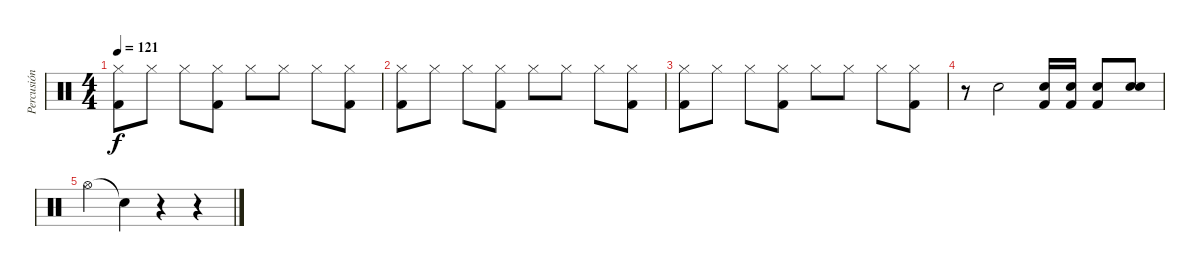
\track ("Percusión" "Percusión") {instrument percussion}
\staff {score}
\articulation defaults
\ts (4 4)
\tempo 121
\clef neutral
\ks c
("Kick (hit) 2" "Hi-Hat (closed)").8{dy f} "Hi-Hat (closed)".8 "Hi-Hat (closed)".8 ("Kick (hit) 2" "Hi-Hat (closed)").8 "Hi-Hat (closed)".8 "Hi-Hat (closed)".8 "Hi-Hat (closed)".8 ("Kick (hit) 2" "Hi-Hat (closed)").8 |
("Kick (hit) 2" "Hi-Hat (closed)").8 "Hi-Hat (closed)".8 "Hi-Hat (closed)".8 ("Kick (hit) 2" "Hi-Hat (closed)").8 "Hi-Hat (closed)".8 "Hi-Hat (closed)".8 "Hi-Hat (closed)".8 ("Kick (hit) 2" "Hi-Hat (closed)").8 |
("Kick (hit) 2" "Hi-Hat (closed)").8 "Hi-Hat (closed)".8 "Hi-Hat (closed)".8 ("Kick (hit) 2" "Hi-Hat (closed)").8 "Hi-Hat (closed)".8 "Hi-Hat (closed)".8 "Hi-Hat (closed)".8 ("Kick (hit) 2" "Hi-Hat (closed)").8 |
r.8 "Snare (hit) 2".2 ("Kick (hit) 2" "Snare (hit) 2").16 ("Kick (hit) 2" "Snare (hit) 2").16 ("Kick (hit) 2" "Snare (hit) 2").8 ("Snare (hit) 2" "Electric Snare (hit)").8 |
"Hi-Hat (open)".4 "Snare (hit)"{t}.4 r.4 r.4
